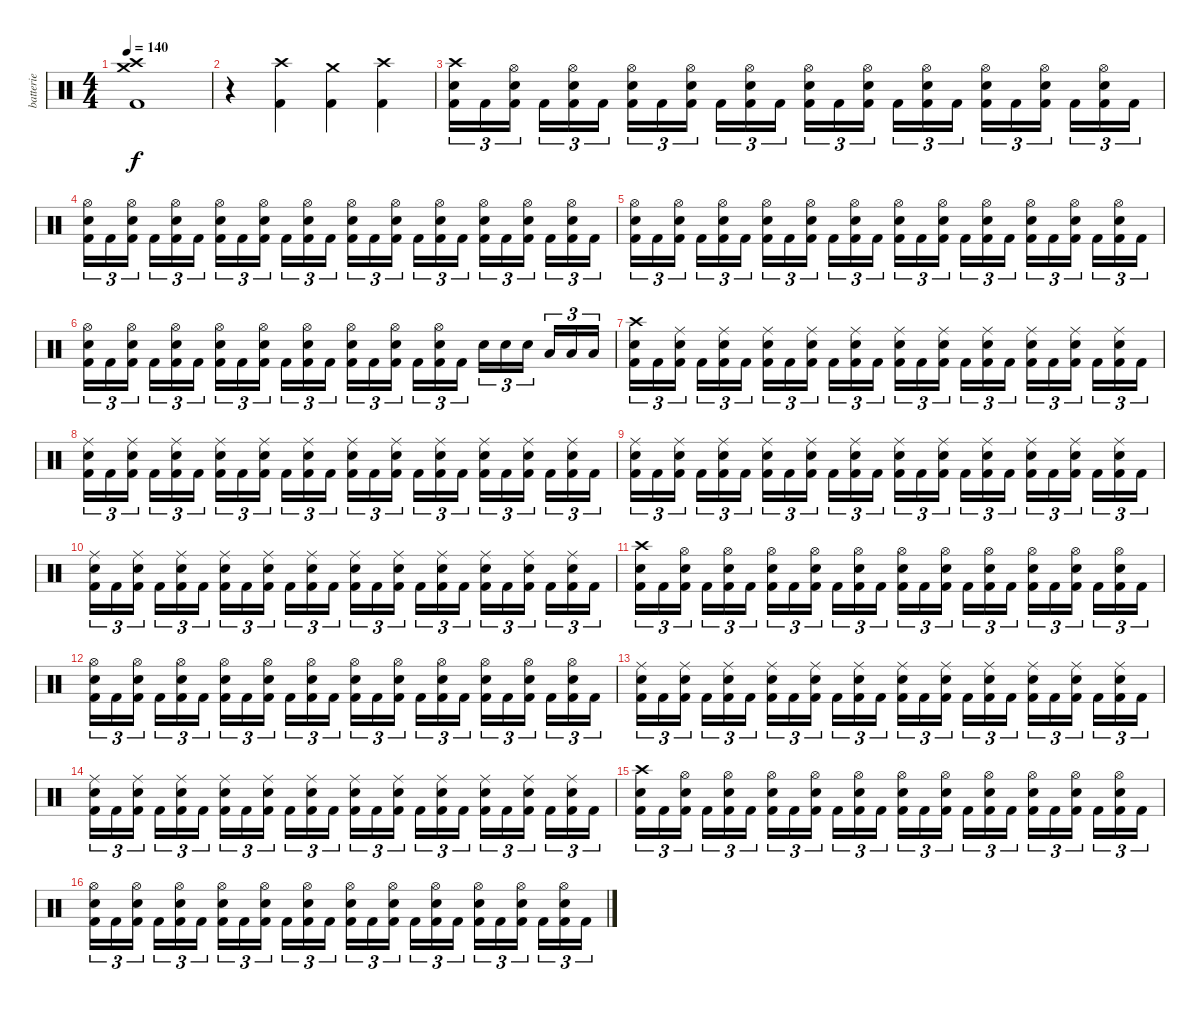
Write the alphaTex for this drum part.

\track ("batterie" "batterie") {instrument percussion}
\staff {score}
\articulation defaults
\ts (4 4)
\tempo 140
\clef neutral
\ks c
("Crash medium (hit)" "Crash high (hit)" "Kick (hit) 2").1{dy f} |
r.4 ("Crash high (hit)" "Kick (hit) 2").4 ("Crash medium (hit)" "Kick (hit) 2").4 ("Crash high (hit)" "Kick (hit) 2").4 |
("Crash high (hit)" "Electric Snare (hit)" "Kick (hit) 2").16{tu (3 2)} "Kick (hit) 2".16{tu (3 2)} ("Hi-Hat (open)" "Electric Snare (hit)" "Kick (hit) 2").16{tu (3 2)} "Kick (hit) 2".16{tu (3 2)} ("Hi-Hat (open)" "Electric Snare (hit)" "Kick (hit) 2").16{tu (3 2)} "Kick (hit) 2".16{tu (3 2)} ("Hi-Hat (open)" "Electric Snare (hit)" "Kick (hit) 2").16{tu (3 2)} "Kick (hit) 2".16{tu (3 2)} ("Hi-Hat (open)" "Electric Snare (hit)" "Kick (hit) 2").16{tu (3 2)} "Kick (hit) 2".16{tu (3 2)} ("Hi-Hat (open)" "Electric Snare (hit)" "Kick (hit) 2").16{tu (3 2)} "Kick (hit) 2".16{tu (3 2)} ("Hi-Hat (open)" "Electric Snare (hit)" "Kick (hit) 2").16{tu (3 2)} "Kick (hit) 2".16{tu (3 2)} ("Hi-Hat (open)" "Electric Snare (hit)" "Kick (hit) 2").16{tu (3 2)} "Kick (hit) 2".16{tu (3 2)} ("Hi-Hat (open)" "Electric Snare (hit)" "Kick (hit) 2").16{tu (3 2)} "Kick (hit) 2".16{tu (3 2)} ("Hi-Hat (open)" "Electric Snare (hit)" "Kick (hit) 2").16{tu (3 2)} "Kick (hit) 2".16{tu (3 2)} ("Hi-Hat (open)" "Electric Snare (hit)" "Kick (hit) 2").16{tu (3 2)} "Kick (hit) 2".16{tu (3 2)} ("Hi-Hat (open)" "Electric Snare (hit)" "Kick (hit) 2").16{tu (3 2)} "Kick (hit) 2".16{tu (3 2)} |
("Hi-Hat (open)" "Electric Snare (hit)" "Kick (hit) 2").16{tu (3 2)} "Kick (hit) 2".16{tu (3 2)} ("Hi-Hat (open)" "Electric Snare (hit)" "Kick (hit) 2").16{tu (3 2)} "Kick (hit) 2".16{tu (3 2)} ("Hi-Hat (open)" "Electric Snare (hit)" "Kick (hit) 2").16{tu (3 2)} "Kick (hit) 2".16{tu (3 2)} ("Hi-Hat (open)" "Electric Snare (hit)" "Kick (hit) 2").16{tu (3 2)} "Kick (hit) 2".16{tu (3 2)} ("Hi-Hat (open)" "Electric Snare (hit)" "Kick (hit) 2").16{tu (3 2)} "Kick (hit) 2".16{tu (3 2)} ("Hi-Hat (open)" "Electric Snare (hit)" "Kick (hit) 2").16{tu (3 2)} "Kick (hit) 2".16{tu (3 2)} ("Hi-Hat (open)" "Electric Snare (hit)" "Kick (hit) 2").16{tu (3 2)} "Kick (hit) 2".16{tu (3 2)} ("Hi-Hat (open)" "Electric Snare (hit)" "Kick (hit) 2").16{tu (3 2)} "Kick (hit) 2".16{tu (3 2)} ("Hi-Hat (open)" "Electric Snare (hit)" "Kick (hit) 2").16{tu (3 2)} "Kick (hit) 2".16{tu (3 2)} ("Hi-Hat (open)" "Electric Snare (hit)" "Kick (hit) 2").16{tu (3 2)} "Kick (hit) 2".16{tu (3 2)} ("Hi-Hat (open)" "Electric Snare (hit)" "Kick (hit) 2").16{tu (3 2)} "Kick (hit) 2".16{tu (3 2)} ("Hi-Hat (open)" "Electric Snare (hit)" "Kick (hit) 2").16{tu (3 2)} "Kick (hit) 2".16{tu (3 2)} |
("Hi-Hat (open)" "Electric Snare (hit)" "Kick (hit) 2").16{tu (3 2)} "Kick (hit) 2".16{tu (3 2)} ("Hi-Hat (open)" "Electric Snare (hit)" "Kick (hit) 2").16{tu (3 2)} "Kick (hit) 2".16{tu (3 2)} ("Hi-Hat (open)" "Electric Snare (hit)" "Kick (hit) 2").16{tu (3 2)} "Kick (hit) 2".16{tu (3 2)} ("Hi-Hat (open)" "Electric Snare (hit)" "Kick (hit) 2").16{tu (3 2)} "Kick (hit) 2".16{tu (3 2)} ("Hi-Hat (open)" "Electric Snare (hit)" "Kick (hit) 2").16{tu (3 2)} "Kick (hit) 2".16{tu (3 2)} ("Hi-Hat (open)" "Electric Snare (hit)" "Kick (hit) 2").16{tu (3 2)} "Kick (hit) 2".16{tu (3 2)} ("Hi-Hat (open)" "Electric Snare (hit)" "Kick (hit) 2").16{tu (3 2)} "Kick (hit) 2".16{tu (3 2)} ("Hi-Hat (open)" "Electric Snare (hit)" "Kick (hit) 2").16{tu (3 2)} "Kick (hit) 2".16{tu (3 2)} ("Hi-Hat (open)" "Electric Snare (hit)" "Kick (hit) 2").16{tu (3 2)} "Kick (hit) 2".16{tu (3 2)} ("Hi-Hat (open)" "Electric Snare (hit)" "Kick (hit) 2").16{tu (3 2)} "Kick (hit) 2".16{tu (3 2)} ("Hi-Hat (open)" "Electric Snare (hit)" "Kick (hit) 2").16{tu (3 2)} "Kick (hit) 2".16{tu (3 2)} ("Hi-Hat (open)" "Electric Snare (hit)" "Kick (hit) 2").16{tu (3 2)} "Kick (hit) 2".16{tu (3 2)} |
("Hi-Hat (open)" "Electric Snare (hit)" "Kick (hit) 2").16{tu (3 2)} "Kick (hit) 2".16{tu (3 2)} ("Hi-Hat (open)" "Electric Snare (hit)" "Kick (hit) 2").16{tu (3 2)} "Kick (hit) 2".16{tu (3 2)} ("Hi-Hat (open)" "Electric Snare (hit)" "Kick (hit) 2").16{tu (3 2)} "Kick (hit) 2".16{tu (3 2)} ("Hi-Hat (open)" "Electric Snare (hit)" "Kick (hit) 2").16{tu (3 2)} "Kick (hit) 2".16{tu (3 2)} ("Hi-Hat (open)" "Electric Snare (hit)" "Kick (hit) 2").16{tu (3 2)} "Kick (hit) 2".16{tu (3 2)} ("Hi-Hat (open)" "Electric Snare (hit)" "Kick (hit) 2").16{tu (3 2)} "Kick (hit) 2".16{tu (3 2)} ("Hi-Hat (open)" "Electric Snare (hit)" "Kick (hit) 2").16{tu (3 2)} "Kick (hit) 2".16{tu (3 2)} ("Hi-Hat (open)" "Electric Snare (hit)" "Kick (hit) 2").16{tu (3 2)} "Kick (hit) 2".16{tu (3 2)} ("Hi-Hat (open)" "Electric Snare (hit)" "Kick (hit) 2").16{tu (3 2)} "Kick (hit) 2".16{tu (3 2)} "Electric Snare (hit)".16{tu (3 2)} "Electric Snare (hit)".16{tu (3 2)} "Electric Snare (hit)".16{tu (3 2)} "Low Tom (hit)".16{tu (3 2)} "Low Tom (hit)".16{tu (3 2)} "Low Tom (hit)".16{tu (3 2)} |
("Crash high (hit)" "Electric Snare (hit)" "Kick (hit) 2").16{tu (3 2)} "Kick (hit) 2".16{tu (3 2)} ("Ride (middle)" "Electric Snare (hit)" "Kick (hit) 2").16{tu (3 2)} "Kick (hit) 2".16{tu (3 2)} ("Ride (middle)" "Electric Snare (hit)" "Kick (hit) 2").16{tu (3 2)} "Kick (hit) 2".16{tu (3 2)} ("Ride (middle)" "Electric Snare (hit)" "Kick (hit) 2").16{tu (3 2)} "Kick (hit) 2".16{tu (3 2)} ("Ride (middle)" "Electric Snare (hit)" "Kick (hit) 2").16{tu (3 2)} "Kick (hit) 2".16{tu (3 2)} ("Ride (middle)" "Electric Snare (hit)" "Kick (hit) 2").16{tu (3 2)} "Kick (hit) 2".16{tu (3 2)} ("Ride (middle)" "Electric Snare (hit)" "Kick (hit) 2").16{tu (3 2)} "Kick (hit) 2".16{tu (3 2)} ("Ride (middle)" "Electric Snare (hit)" "Kick (hit) 2").16{tu (3 2)} "Kick (hit) 2".16{tu (3 2)} ("Ride (middle)" "Electric Snare (hit)" "Kick (hit) 2").16{tu (3 2)} "Kick (hit) 2".16{tu (3 2)} ("Ride (middle)" "Electric Snare (hit)" "Kick (hit) 2").16{tu (3 2)} "Kick (hit) 2".16{tu (3 2)} ("Ride (middle)" "Electric Snare (hit)" "Kick (hit) 2").16{tu (3 2)} "Kick (hit) 2".16{tu (3 2)} ("Ride (middle)" "Electric Snare (hit)" "Kick (hit) 2").16{tu (3 2)} "Kick (hit) 2".16{tu (3 2)} |
("Ride (middle)" "Electric Snare (hit)" "Kick (hit) 2").16{tu (3 2)} "Kick (hit) 2".16{tu (3 2)} ("Ride (middle)" "Electric Snare (hit)" "Kick (hit) 2").16{tu (3 2)} "Kick (hit) 2".16{tu (3 2)} ("Ride (middle)" "Electric Snare (hit)" "Kick (hit) 2").16{tu (3 2)} "Kick (hit) 2".16{tu (3 2)} ("Ride (middle)" "Electric Snare (hit)" "Kick (hit) 2").16{tu (3 2)} "Kick (hit) 2".16{tu (3 2)} ("Ride (middle)" "Electric Snare (hit)" "Kick (hit) 2").16{tu (3 2)} "Kick (hit) 2".16{tu (3 2)} ("Ride (middle)" "Electric Snare (hit)" "Kick (hit) 2").16{tu (3 2)} "Kick (hit) 2".16{tu (3 2)} ("Ride (middle)" "Electric Snare (hit)" "Kick (hit) 2").16{tu (3 2)} "Kick (hit) 2".16{tu (3 2)} ("Ride (middle)" "Electric Snare (hit)" "Kick (hit) 2").16{tu (3 2)} "Kick (hit) 2".16{tu (3 2)} ("Ride (middle)" "Electric Snare (hit)" "Kick (hit) 2").16{tu (3 2)} "Kick (hit) 2".16{tu (3 2)} ("Ride (middle)" "Electric Snare (hit)" "Kick (hit) 2").16{tu (3 2)} "Kick (hit) 2".16{tu (3 2)} ("Ride (middle)" "Electric Snare (hit)" "Kick (hit) 2").16{tu (3 2)} "Kick (hit) 2".16{tu (3 2)} ("Ride (middle)" "Electric Snare (hit)" "Kick (hit) 2").16{tu (3 2)} "Kick (hit) 2".16{tu (3 2)} |
("Ride (middle)" "Electric Snare (hit)" "Kick (hit) 2").16{tu (3 2)} "Kick (hit) 2".16{tu (3 2)} ("Ride (middle)" "Electric Snare (hit)" "Kick (hit) 2").16{tu (3 2)} "Kick (hit) 2".16{tu (3 2)} ("Ride (middle)" "Electric Snare (hit)" "Kick (hit) 2").16{tu (3 2)} "Kick (hit) 2".16{tu (3 2)} ("Ride (middle)" "Electric Snare (hit)" "Kick (hit) 2").16{tu (3 2)} "Kick (hit) 2".16{tu (3 2)} ("Ride (middle)" "Electric Snare (hit)" "Kick (hit) 2").16{tu (3 2)} "Kick (hit) 2".16{tu (3 2)} ("Ride (middle)" "Electric Snare (hit)" "Kick (hit) 2").16{tu (3 2)} "Kick (hit) 2".16{tu (3 2)} ("Ride (middle)" "Electric Snare (hit)" "Kick (hit) 2").16{tu (3 2)} "Kick (hit) 2".16{tu (3 2)} ("Ride (middle)" "Electric Snare (hit)" "Kick (hit) 2").16{tu (3 2)} "Kick (hit) 2".16{tu (3 2)} ("Ride (middle)" "Electric Snare (hit)" "Kick (hit) 2").16{tu (3 2)} "Kick (hit) 2".16{tu (3 2)} ("Ride (middle)" "Electric Snare (hit)" "Kick (hit) 2").16{tu (3 2)} "Kick (hit) 2".16{tu (3 2)} ("Ride (middle)" "Electric Snare (hit)" "Kick (hit) 2").16{tu (3 2)} "Kick (hit) 2".16{tu (3 2)} ("Ride (middle)" "Electric Snare (hit)" "Kick (hit) 2").16{tu (3 2)} "Kick (hit) 2".16{tu (3 2)} |
("Ride (middle)" "Electric Snare (hit)" "Kick (hit) 2").16{tu (3 2)} "Kick (hit) 2".16{tu (3 2)} ("Ride (middle)" "Electric Snare (hit)" "Kick (hit) 2").16{tu (3 2)} "Kick (hit) 2".16{tu (3 2)} ("Ride (middle)" "Electric Snare (hit)" "Kick (hit) 2").16{tu (3 2)} "Kick (hit) 2".16{tu (3 2)} ("Ride (middle)" "Electric Snare (hit)" "Kick (hit) 2").16{tu (3 2)} "Kick (hit) 2".16{tu (3 2)} ("Ride (middle)" "Electric Snare (hit)" "Kick (hit) 2").16{tu (3 2)} "Kick (hit) 2".16{tu (3 2)} ("Ride (middle)" "Electric Snare (hit)" "Kick (hit) 2").16{tu (3 2)} "Kick (hit) 2".16{tu (3 2)} ("Ride (middle)" "Electric Snare (hit)" "Kick (hit) 2").16{tu (3 2)} "Kick (hit) 2".16{tu (3 2)} ("Ride (middle)" "Electric Snare (hit)" "Kick (hit) 2").16{tu (3 2)} "Kick (hit) 2".16{tu (3 2)} ("Ride (middle)" "Electric Snare (hit)" "Kick (hit) 2").16{tu (3 2)} "Kick (hit) 2".16{tu (3 2)} ("Ride (middle)" "Electric Snare (hit)" "Kick (hit) 2").16{tu (3 2)} "Kick (hit) 2".16{tu (3 2)} ("Ride (middle)" "Electric Snare (hit)" "Kick (hit) 2").16{tu (3 2)} "Kick (hit) 2".16{tu (3 2)} ("Ride (middle)" "Electric Snare (hit)" "Kick (hit) 2").16{tu (3 2)} "Kick (hit) 2".16{tu (3 2)} |
("Crash high (hit)" "Electric Snare (hit)" "Kick (hit) 2").16{tu (3 2)} "Kick (hit) 2".16{tu (3 2)} ("Hi-Hat (open)" "Electric Snare (hit)" "Kick (hit) 2").16{tu (3 2)} "Kick (hit) 2".16{tu (3 2)} ("Hi-Hat (open)" "Electric Snare (hit)" "Kick (hit) 2").16{tu (3 2)} "Kick (hit) 2".16{tu (3 2)} ("Hi-Hat (open)" "Electric Snare (hit)" "Kick (hit) 2").16{tu (3 2)} "Kick (hit) 2".16{tu (3 2)} ("Hi-Hat (open)" "Electric Snare (hit)" "Kick (hit) 2").16{tu (3 2)} "Kick (hit) 2".16{tu (3 2)} ("Hi-Hat (open)" "Electric Snare (hit)" "Kick (hit) 2").16{tu (3 2)} "Kick (hit) 2".16{tu (3 2)} ("Hi-Hat (open)" "Electric Snare (hit)" "Kick (hit) 2").16{tu (3 2)} "Kick (hit) 2".16{tu (3 2)} ("Hi-Hat (open)" "Electric Snare (hit)" "Kick (hit) 2").16{tu (3 2)} "Kick (hit) 2".16{tu (3 2)} ("Hi-Hat (open)" "Electric Snare (hit)" "Kick (hit) 2").16{tu (3 2)} "Kick (hit) 2".16{tu (3 2)} ("Hi-Hat (open)" "Electric Snare (hit)" "Kick (hit) 2").16{tu (3 2)} "Kick (hit) 2".16{tu (3 2)} ("Hi-Hat (open)" "Electric Snare (hit)" "Kick (hit) 2").16{tu (3 2)} "Kick (hit) 2".16{tu (3 2)} ("Hi-Hat (open)" "Electric Snare (hit)" "Kick (hit) 2").16{tu (3 2)} "Kick (hit) 2".16{tu (3 2)} |
("Hi-Hat (open)" "Electric Snare (hit)" "Kick (hit) 2").16{tu (3 2)} "Kick (hit) 2".16{tu (3 2)} ("Hi-Hat (open)" "Electric Snare (hit)" "Kick (hit) 2").16{tu (3 2)} "Kick (hit) 2".16{tu (3 2)} ("Hi-Hat (open)" "Electric Snare (hit)" "Kick (hit) 2").16{tu (3 2)} "Kick (hit) 2".16{tu (3 2)} ("Hi-Hat (open)" "Electric Snare (hit)" "Kick (hit) 2").16{tu (3 2)} "Kick (hit) 2".16{tu (3 2)} ("Hi-Hat (open)" "Electric Snare (hit)" "Kick (hit) 2").16{tu (3 2)} "Kick (hit) 2".16{tu (3 2)} ("Hi-Hat (open)" "Electric Snare (hit)" "Kick (hit) 2").16{tu (3 2)} "Kick (hit) 2".16{tu (3 2)} ("Hi-Hat (open)" "Electric Snare (hit)" "Kick (hit) 2").16{tu (3 2)} "Kick (hit) 2".16{tu (3 2)} ("Hi-Hat (open)" "Electric Snare (hit)" "Kick (hit) 2").16{tu (3 2)} "Kick (hit) 2".16{tu (3 2)} ("Hi-Hat (open)" "Electric Snare (hit)" "Kick (hit) 2").16{tu (3 2)} "Kick (hit) 2".16{tu (3 2)} ("Hi-Hat (open)" "Electric Snare (hit)" "Kick (hit) 2").16{tu (3 2)} "Kick (hit) 2".16{tu (3 2)} ("Hi-Hat (open)" "Electric Snare (hit)" "Kick (hit) 2").16{tu (3 2)} "Kick (hit) 2".16{tu (3 2)} ("Hi-Hat (open)" "Electric Snare (hit)" "Kick (hit) 2").16{tu (3 2)} "Kick (hit) 2".16{tu (3 2)} |
("Ride (middle)" "Electric Snare (hit)" "Kick (hit) 2").16{tu (3 2)} "Kick (hit) 2".16{tu (3 2)} ("Ride (middle)" "Electric Snare (hit)" "Kick (hit) 2").16{tu (3 2)} "Kick (hit) 2".16{tu (3 2)} ("Ride (middle)" "Electric Snare (hit)" "Kick (hit) 2").16{tu (3 2)} "Kick (hit) 2".16{tu (3 2)} ("Ride (middle)" "Electric Snare (hit)" "Kick (hit) 2").16{tu (3 2)} "Kick (hit) 2".16{tu (3 2)} ("Ride (middle)" "Electric Snare (hit)" "Kick (hit) 2").16{tu (3 2)} "Kick (hit) 2".16{tu (3 2)} ("Ride (middle)" "Electric Snare (hit)" "Kick (hit) 2").16{tu (3 2)} "Kick (hit) 2".16{tu (3 2)} ("Ride (middle)" "Electric Snare (hit)" "Kick (hit) 2").16{tu (3 2)} "Kick (hit) 2".16{tu (3 2)} ("Ride (middle)" "Electric Snare (hit)" "Kick (hit) 2").16{tu (3 2)} "Kick (hit) 2".16{tu (3 2)} ("Ride (middle)" "Electric Snare (hit)" "Kick (hit) 2").16{tu (3 2)} "Kick (hit) 2".16{tu (3 2)} ("Ride (middle)" "Electric Snare (hit)" "Kick (hit) 2").16{tu (3 2)} "Kick (hit) 2".16{tu (3 2)} ("Ride (middle)" "Electric Snare (hit)" "Kick (hit) 2").16{tu (3 2)} "Kick (hit) 2".16{tu (3 2)} ("Ride (middle)" "Electric Snare (hit)" "Kick (hit) 2").16{tu (3 2)} "Kick (hit) 2".16{tu (3 2)} |
("Ride (middle)" "Electric Snare (hit)" "Kick (hit) 2").16{tu (3 2)} "Kick (hit) 2".16{tu (3 2)} ("Ride (middle)" "Electric Snare (hit)" "Kick (hit) 2").16{tu (3 2)} "Kick (hit) 2".16{tu (3 2)} ("Ride (middle)" "Electric Snare (hit)" "Kick (hit) 2").16{tu (3 2)} "Kick (hit) 2".16{tu (3 2)} ("Ride (middle)" "Electric Snare (hit)" "Kick (hit) 2").16{tu (3 2)} "Kick (hit) 2".16{tu (3 2)} ("Ride (middle)" "Electric Snare (hit)" "Kick (hit) 2").16{tu (3 2)} "Kick (hit) 2".16{tu (3 2)} ("Ride (middle)" "Electric Snare (hit)" "Kick (hit) 2").16{tu (3 2)} "Kick (hit) 2".16{tu (3 2)} ("Ride (middle)" "Electric Snare (hit)" "Kick (hit) 2").16{tu (3 2)} "Kick (hit) 2".16{tu (3 2)} ("Ride (middle)" "Electric Snare (hit)" "Kick (hit) 2").16{tu (3 2)} "Kick (hit) 2".16{tu (3 2)} ("Ride (middle)" "Electric Snare (hit)" "Kick (hit) 2").16{tu (3 2)} "Kick (hit) 2".16{tu (3 2)} ("Ride (middle)" "Electric Snare (hit)" "Kick (hit) 2").16{tu (3 2)} "Kick (hit) 2".16{tu (3 2)} ("Ride (middle)" "Electric Snare (hit)" "Kick (hit) 2").16{tu (3 2)} "Kick (hit) 2".16{tu (3 2)} ("Ride (middle)" "Electric Snare (hit)" "Kick (hit) 2").16{tu (3 2)} "Kick (hit) 2".16{tu (3 2)} |
("Crash high (hit)" "Electric Snare (hit)" "Kick (hit) 2").16{tu (3 2)} "Kick (hit) 2".16{tu (3 2)} ("Hi-Hat (open)" "Electric Snare (hit)" "Kick (hit) 2").16{tu (3 2)} "Kick (hit) 2".16{tu (3 2)} ("Hi-Hat (open)" "Electric Snare (hit)" "Kick (hit) 2").16{tu (3 2)} "Kick (hit) 2".16{tu (3 2)} ("Hi-Hat (open)" "Electric Snare (hit)" "Kick (hit) 2").16{tu (3 2)} "Kick (hit) 2".16{tu (3 2)} ("Hi-Hat (open)" "Electric Snare (hit)" "Kick (hit) 2").16{tu (3 2)} "Kick (hit) 2".16{tu (3 2)} ("Hi-Hat (open)" "Electric Snare (hit)" "Kick (hit) 2").16{tu (3 2)} "Kick (hit) 2".16{tu (3 2)} ("Hi-Hat (open)" "Electric Snare (hit)" "Kick (hit) 2").16{tu (3 2)} "Kick (hit) 2".16{tu (3 2)} ("Hi-Hat (open)" "Electric Snare (hit)" "Kick (hit) 2").16{tu (3 2)} "Kick (hit) 2".16{tu (3 2)} ("Hi-Hat (open)" "Electric Snare (hit)" "Kick (hit) 2").16{tu (3 2)} "Kick (hit) 2".16{tu (3 2)} ("Hi-Hat (open)" "Electric Snare (hit)" "Kick (hit) 2").16{tu (3 2)} "Kick (hit) 2".16{tu (3 2)} ("Hi-Hat (open)" "Electric Snare (hit)" "Kick (hit) 2").16{tu (3 2)} "Kick (hit) 2".16{tu (3 2)} ("Hi-Hat (open)" "Electric Snare (hit)" "Kick (hit) 2").16{tu (3 2)} "Kick (hit) 2".16{tu (3 2)} |
("Hi-Hat (open)" "Electric Snare (hit)" "Kick (hit) 2").16{tu (3 2)} "Kick (hit) 2".16{tu (3 2)} ("Hi-Hat (open)" "Electric Snare (hit)" "Kick (hit) 2").16{tu (3 2)} "Kick (hit) 2".16{tu (3 2)} ("Hi-Hat (open)" "Electric Snare (hit)" "Kick (hit) 2").16{tu (3 2)} "Kick (hit) 2".16{tu (3 2)} ("Hi-Hat (open)" "Electric Snare (hit)" "Kick (hit) 2").16{tu (3 2)} "Kick (hit) 2".16{tu (3 2)} ("Hi-Hat (open)" "Electric Snare (hit)" "Kick (hit) 2").16{tu (3 2)} "Kick (hit) 2".16{tu (3 2)} ("Hi-Hat (open)" "Electric Snare (hit)" "Kick (hit) 2").16{tu (3 2)} "Kick (hit) 2".16{tu (3 2)} ("Hi-Hat (open)" "Electric Snare (hit)" "Kick (hit) 2").16{tu (3 2)} "Kick (hit) 2".16{tu (3 2)} ("Hi-Hat (open)" "Electric Snare (hit)" "Kick (hit) 2").16{tu (3 2)} "Kick (hit) 2".16{tu (3 2)} ("Hi-Hat (open)" "Electric Snare (hit)" "Kick (hit) 2").16{tu (3 2)} "Kick (hit) 2".16{tu (3 2)} ("Hi-Hat (open)" "Electric Snare (hit)" "Kick (hit) 2").16{tu (3 2)} "Kick (hit) 2".16{tu (3 2)} ("Hi-Hat (open)" "Electric Snare (hit)" "Kick (hit) 2").16{tu (3 2)} "Kick (hit) 2".16{tu (3 2)} ("Hi-Hat (open)" "Electric Snare (hit)" "Kick (hit) 2").16{tu (3 2)} "Kick (hit) 2".16{tu (3 2)}
